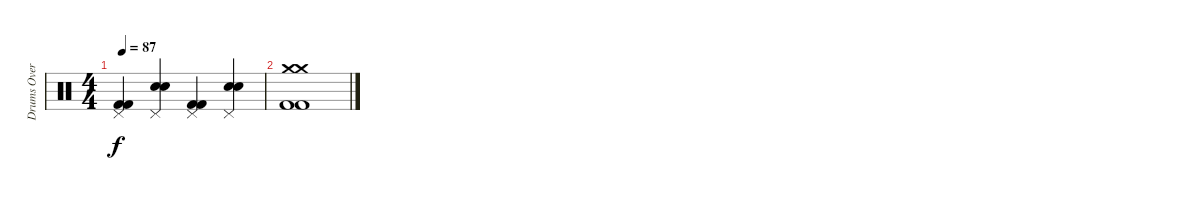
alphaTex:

\track ("Drums Overdub" "Drums Over") {instrument percussion}
\staff {score}
\articulation defaults
\ts (4 4)
\tempo 87
\clef neutral
\ks c
("Pedal Hi-Hat (hit)" "Kick (hit) 2" "Kick (hit) 2").4{dy f volume 2} ("Snare (hit) 2" "Snare (hit) 2" "Pedal Hi-Hat (hit)").4 ("Pedal Hi-Hat (hit)" "Kick (hit) 2" "Kick (hit) 2").4 ("Snare (hit) 2" "Snare (hit) 2" "Pedal Hi-Hat (hit)").4 |
("Crash medium (hit)" "Crash medium (hit)" "Kick (hit) 2" "Kick (hit) 2").1{volume 0}
